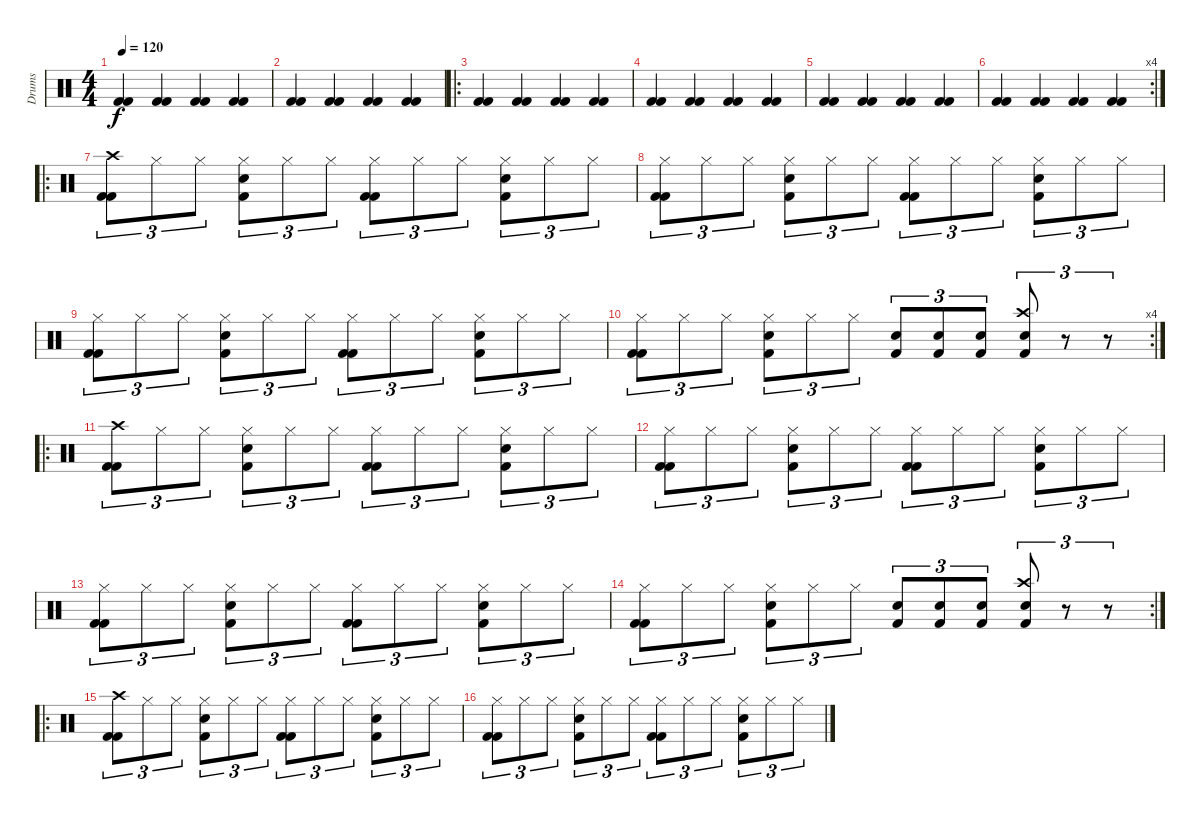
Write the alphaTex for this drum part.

\track ("Drums" "Drums") {instrument percussion}
\staff {score}
\articulation defaults
\ts (4 4)
\tempo 120
\clef neutral
\ks c
("Kick (hit) 2" "Kick (hit) 2").4{dy f} ("Kick (hit) 2" "Kick (hit) 2").4 ("Kick (hit) 2" "Kick (hit) 2").4 ("Kick (hit) 2" "Kick (hit) 2").4 |
("Kick (hit) 2" "Kick (hit) 2").4 ("Kick (hit) 2" "Kick (hit) 2").4 ("Kick (hit) 2" "Kick (hit) 2").4 ("Kick (hit) 2" "Kick (hit) 2").4 |
\ro
("Kick (hit) 2" "Kick (hit) 2").4 ("Kick (hit) 2" "Kick (hit) 2").4 ("Kick (hit) 2" "Kick (hit) 2").4 ("Kick (hit) 2" "Kick (hit) 2").4 |
("Kick (hit) 2" "Kick (hit) 2").4 ("Kick (hit) 2" "Kick (hit) 2").4 ("Kick (hit) 2" "Kick (hit) 2").4 ("Kick (hit) 2" "Kick (hit) 2").4 |
("Kick (hit) 2" "Kick (hit) 2").4 ("Kick (hit) 2" "Kick (hit) 2").4 ("Kick (hit) 2" "Kick (hit) 2").4 ("Kick (hit) 2" "Kick (hit) 2").4 |
\rc 4
("Kick (hit) 2" "Kick (hit) 2").4 ("Kick (hit) 2" "Kick (hit) 2").4 ("Kick (hit) 2" "Kick (hit) 2").4 ("Kick (hit) 2" "Kick (hit) 2").4 |
\ro
("Crash high (hit)" "Kick (hit) 2" "Kick (hit) 2").8{tu (3 2)} "Hi-Hat (closed)".8{tu (3 2)} "Hi-Hat (closed)".8{tu (3 2)} ("Hi-Hat (closed)" "Snare (hit) 2" "Kick (hit) 2").8{tu (3 2)} "Hi-Hat (closed)".8{tu (3 2)} "Hi-Hat (closed)".8{tu (3 2)} ("Hi-Hat (closed)" "Kick (hit) 2" "Kick (hit) 2").8{tu (3 2)} "Hi-Hat (closed)".8{tu (3 2)} "Hi-Hat (closed)".8{tu (3 2)} ("Hi-Hat (closed)" "Kick (hit) 2" "Snare (hit) 2").8{tu (3 2)} "Hi-Hat (closed)".8{tu (3 2)} "Hi-Hat (closed)".8{tu (3 2)} |
("Hi-Hat (closed)" "Kick (hit) 2" "Kick (hit) 2").8{tu (3 2)} "Hi-Hat (closed)".8{tu (3 2)} "Hi-Hat (closed)".8{tu (3 2)} ("Hi-Hat (closed)" "Snare (hit) 2" "Kick (hit) 2").8{tu (3 2)} "Hi-Hat (closed)".8{tu (3 2)} "Hi-Hat (closed)".8{tu (3 2)} ("Hi-Hat (closed)" "Kick (hit) 2" "Kick (hit) 2").8{tu (3 2)} "Hi-Hat (closed)".8{tu (3 2)} "Hi-Hat (closed)".8{tu (3 2)} ("Hi-Hat (closed)" "Kick (hit) 2" "Snare (hit) 2").8{tu (3 2)} "Hi-Hat (closed)".8{tu (3 2)} "Hi-Hat (closed)".8{tu (3 2)} |
("Hi-Hat (closed)" "Kick (hit) 2" "Kick (hit) 2").8{tu (3 2)} "Hi-Hat (closed)".8{tu (3 2)} "Hi-Hat (closed)".8{tu (3 2)} ("Hi-Hat (closed)" "Snare (hit) 2" "Kick (hit) 2").8{tu (3 2)} "Hi-Hat (closed)".8{tu (3 2)} "Hi-Hat (closed)".8{tu (3 2)} ("Hi-Hat (closed)" "Kick (hit) 2" "Kick (hit) 2").8{tu (3 2)} "Hi-Hat (closed)".8{tu (3 2)} "Hi-Hat (closed)".8{tu (3 2)} ("Hi-Hat (closed)" "Kick (hit) 2" "Snare (hit) 2").8{tu (3 2)} "Hi-Hat (closed)".8{tu (3 2)} "Hi-Hat (closed)".8{tu (3 2)} |
\rc 4
("Hi-Hat (closed)" "Kick (hit) 2" "Kick (hit) 2").8{tu (3 2)} "Hi-Hat (closed)".8{tu (3 2)} "Hi-Hat (closed)".8{tu (3 2)} ("Hi-Hat (closed)" "Snare (hit) 2" "Kick (hit) 2").8{tu (3 2)} "Hi-Hat (closed)".8{tu (3 2)} "Hi-Hat (closed)".8{tu (3 2)} ("Snare (hit) 2" "Kick (hit) 2").8{tu (3 2)} ("Snare (hit) 2" "Kick (hit) 2").8{tu (3 2)} ("Snare (hit) 2" "Kick (hit) 2").8{tu (3 2)} ("Crash high (hit)" "Snare (hit) 2" "Kick (hit) 2").8{tu (3 2)} r.8{tu (3 2)} r.8{tu (3 2)} |
\ro
("Crash high (hit)" "Kick (hit) 2" "Kick (hit) 2").8{tu (3 2)} "Hi-Hat (closed)".8{tu (3 2)} "Hi-Hat (closed)".8{tu (3 2)} ("Hi-Hat (closed)" "Snare (hit) 2" "Kick (hit) 2").8{tu (3 2)} "Hi-Hat (closed)".8{tu (3 2)} "Hi-Hat (closed)".8{tu (3 2)} ("Hi-Hat (closed)" "Kick (hit) 2" "Kick (hit) 2").8{tu (3 2)} "Hi-Hat (closed)".8{tu (3 2)} "Hi-Hat (closed)".8{tu (3 2)} ("Hi-Hat (closed)" "Kick (hit) 2" "Snare (hit) 2").8{tu (3 2)} "Hi-Hat (closed)".8{tu (3 2)} "Hi-Hat (closed)".8{tu (3 2)} |
("Hi-Hat (closed)" "Kick (hit) 2" "Kick (hit) 2").8{tu (3 2)} "Hi-Hat (closed)".8{tu (3 2)} "Hi-Hat (closed)".8{tu (3 2)} ("Hi-Hat (closed)" "Snare (hit) 2" "Kick (hit) 2").8{tu (3 2)} "Hi-Hat (closed)".8{tu (3 2)} "Hi-Hat (closed)".8{tu (3 2)} ("Hi-Hat (closed)" "Kick (hit) 2" "Kick (hit) 2").8{tu (3 2)} "Hi-Hat (closed)".8{tu (3 2)} "Hi-Hat (closed)".8{tu (3 2)} ("Hi-Hat (closed)" "Kick (hit) 2" "Snare (hit) 2").8{tu (3 2)} "Hi-Hat (closed)".8{tu (3 2)} "Hi-Hat (closed)".8{tu (3 2)} |
("Hi-Hat (closed)" "Kick (hit) 2" "Kick (hit) 2").8{tu (3 2)} "Hi-Hat (closed)".8{tu (3 2)} "Hi-Hat (closed)".8{tu (3 2)} ("Hi-Hat (closed)" "Snare (hit) 2" "Kick (hit) 2").8{tu (3 2)} "Hi-Hat (closed)".8{tu (3 2)} "Hi-Hat (closed)".8{tu (3 2)} ("Hi-Hat (closed)" "Kick (hit) 2" "Kick (hit) 2").8{tu (3 2)} "Hi-Hat (closed)".8{tu (3 2)} "Hi-Hat (closed)".8{tu (3 2)} ("Hi-Hat (closed)" "Kick (hit) 2" "Snare (hit) 2").8{tu (3 2)} "Hi-Hat (closed)".8{tu (3 2)} "Hi-Hat (closed)".8{tu (3 2)} |
\rc 2
("Hi-Hat (closed)" "Kick (hit) 2" "Kick (hit) 2").8{tu (3 2)} "Hi-Hat (closed)".8{tu (3 2)} "Hi-Hat (closed)".8{tu (3 2)} ("Hi-Hat (closed)" "Snare (hit) 2" "Kick (hit) 2").8{tu (3 2)} "Hi-Hat (closed)".8{tu (3 2)} "Hi-Hat (closed)".8{tu (3 2)} ("Snare (hit) 2" "Kick (hit) 2").8{tu (3 2)} ("Snare (hit) 2" "Kick (hit) 2").8{tu (3 2)} ("Snare (hit) 2" "Kick (hit) 2").8{tu (3 2)} ("Crash high (hit)" "Snare (hit) 2" "Kick (hit) 2").8{tu (3 2)} r.8{tu (3 2)} r.8{tu (3 2)} |
\ro
("Crash high (hit)" "Kick (hit) 2" "Kick (hit) 2").8{tu (3 2)} "Hi-Hat (closed)".8{tu (3 2)} "Hi-Hat (closed)".8{tu (3 2)} ("Hi-Hat (closed)" "Snare (hit) 2" "Kick (hit) 2").8{tu (3 2)} "Hi-Hat (closed)".8{tu (3 2)} "Hi-Hat (closed)".8{tu (3 2)} ("Hi-Hat (closed)" "Kick (hit) 2" "Kick (hit) 2").8{tu (3 2)} "Hi-Hat (closed)".8{tu (3 2)} "Hi-Hat (closed)".8{tu (3 2)} ("Hi-Hat (closed)" "Kick (hit) 2" "Snare (hit) 2").8{tu (3 2)} "Hi-Hat (closed)".8{tu (3 2)} "Hi-Hat (closed)".8{tu (3 2)} |
("Hi-Hat (closed)" "Kick (hit) 2" "Kick (hit) 2").8{tu (3 2)} "Hi-Hat (closed)".8{tu (3 2)} "Hi-Hat (closed)".8{tu (3 2)} ("Hi-Hat (closed)" "Snare (hit) 2" "Kick (hit) 2").8{tu (3 2)} "Hi-Hat (closed)".8{tu (3 2)} "Hi-Hat (closed)".8{tu (3 2)} ("Hi-Hat (closed)" "Kick (hit) 2" "Kick (hit) 2").8{tu (3 2)} "Hi-Hat (closed)".8{tu (3 2)} "Hi-Hat (closed)".8{tu (3 2)} ("Hi-Hat (closed)" "Kick (hit) 2" "Snare (hit) 2").8{tu (3 2)} "Hi-Hat (closed)".8{tu (3 2)} "Hi-Hat (closed)".8{tu (3 2)}
